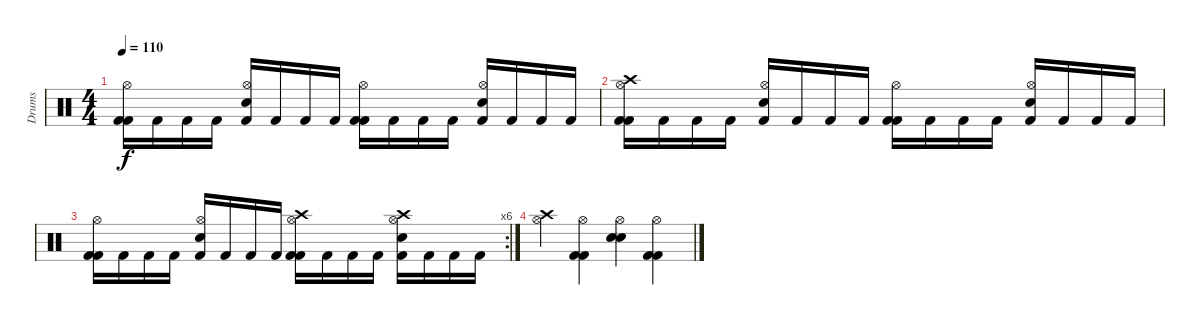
\track ("Drums" "Drums") {instrument percussion}
\staff {score}
\articulation defaults
\ts (4 4)
\tempo 110
\clef neutral
\ks c
("Kick (hit) 2" "Kick (hit) 2" "Hi-Hat (open)").16{dy f} "Kick (hit) 2".16 "Kick (hit) 2".16 "Kick (hit) 2".16 ("Kick (hit) 2" "Electric Snare (hit)" "Hi-Hat (open)").16 "Kick (hit) 2".16 "Kick (hit) 2".16 "Kick (hit) 2".16 ("Kick (hit) 2" "Kick (hit) 2" "Hi-Hat (open)").16 "Kick (hit) 2".16 "Kick (hit) 2".16 "Kick (hit) 2".16 ("Kick (hit) 2" "Electric Snare (hit)" "Hi-Hat (open)").16 "Kick (hit) 2".16 "Kick (hit) 2".16 "Kick (hit) 2".16 |
("Kick (hit) 2" "Kick (hit) 2" "Crash high (hit)" "Hi-Hat (open)").16 "Kick (hit) 2".16 "Kick (hit) 2".16 "Kick (hit) 2".16 ("Kick (hit) 2" "Electric Snare (hit)" "Hi-Hat (open)").16 "Kick (hit) 2".16 "Kick (hit) 2".16 "Kick (hit) 2".16 ("Kick (hit) 2" "Kick (hit) 2" "Hi-Hat (open)").16 "Kick (hit) 2".16 "Kick (hit) 2".16 "Kick (hit) 2".16 ("Kick (hit) 2" "Electric Snare (hit)" "Hi-Hat (open)").16 "Kick (hit) 2".16 "Kick (hit) 2".16 "Kick (hit) 2".16 |
\rc 6
("Kick (hit) 2" "Kick (hit) 2" "Hi-Hat (open)").16 "Kick (hit) 2".16 "Kick (hit) 2".16 "Kick (hit) 2".16 ("Kick (hit) 2" "Electric Snare (hit)" "Hi-Hat (open)").16 "Kick (hit) 2".16 "Kick (hit) 2".16 "Kick (hit) 2".16 ("Kick (hit) 2" "Kick (hit) 2" "Crash high (hit)" "Hi-Hat (open)").16 "Kick (hit) 2".16 "Kick (hit) 2".16 "Kick (hit) 2".16 ("Kick (hit) 2" "Electric Snare (hit)" "Crash high (hit)" "Hi-Hat (open)").16 "Kick (hit) 2".16 "Kick (hit) 2".16 "Kick (hit) 2".16 |
("Crash high (hit)" "Hi-Hat (open)").4 ("Kick (hit) 2" "Kick (hit) 2" "Hi-Hat (open)").4 ("Electric Snare (hit)" "Electric Snare (hit)" "Hi-Hat (open)").4 ("Kick (hit) 2" "Kick (hit) 2" "Hi-Hat (open)").4
